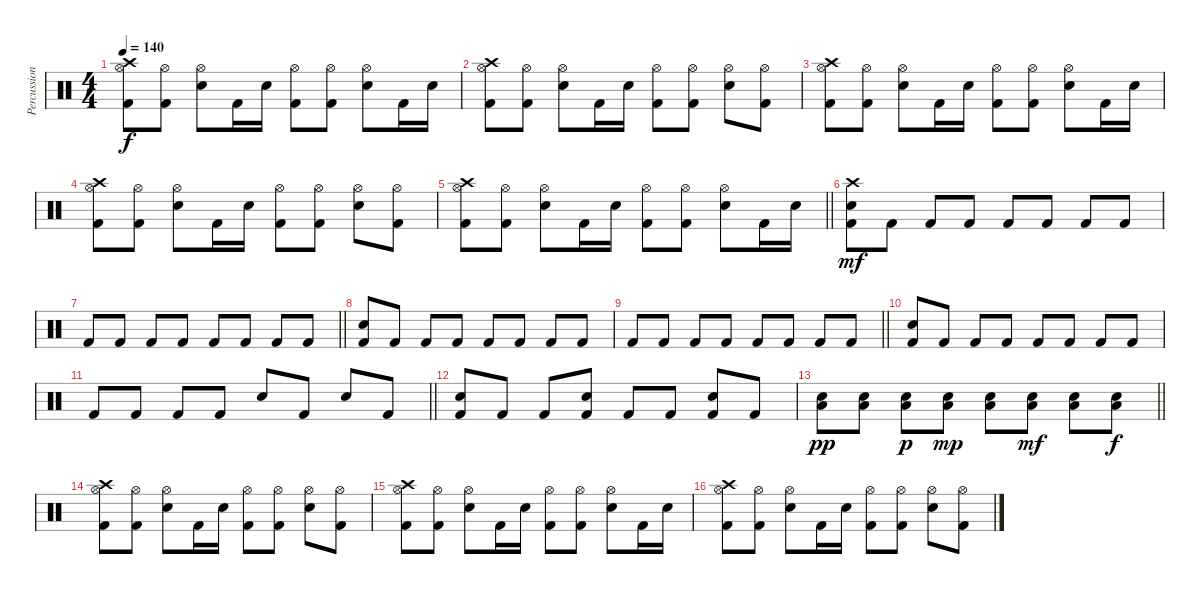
\track ("Percussion" "Percussion") {instrument percussion}
\staff {score}
\articulation defaults
\ts (4 4)
\tempo 140
\clef neutral
\ks c
("Hi-Hat (open)" "Crash high (hit)" "Kick (hit) 2").8{dy f} ("Hi-Hat (open)" "Kick (hit) 2").8 ("Hi-Hat (open)" "Snare (hit) 2").8 "Kick (hit) 2".16 "Snare (hit) 2".16 ("Hi-Hat (open)" "Kick (hit) 2").8 ("Hi-Hat (open)" "Kick (hit) 2").8 ("Hi-Hat (open)" "Snare (hit) 2").8 "Kick (hit) 2".16 "Snare (hit) 2".16 |
("Hi-Hat (open)" "Crash high (hit)" "Kick (hit) 2").8 ("Hi-Hat (open)" "Kick (hit) 2").8 ("Hi-Hat (open)" "Snare (hit) 2").8 "Kick (hit) 2".16 "Snare (hit) 2".16 ("Hi-Hat (open)" "Kick (hit) 2").8 ("Hi-Hat (open)" "Kick (hit) 2").8 ("Hi-Hat (open)" "Snare (hit) 2").8 ("Hi-Hat (open)" "Kick (hit) 2").8 |
("Hi-Hat (open)" "Crash high (hit)" "Kick (hit) 2").8 ("Hi-Hat (open)" "Kick (hit) 2").8 ("Hi-Hat (open)" "Snare (hit) 2").8 "Kick (hit) 2".16 "Snare (hit) 2".16 ("Hi-Hat (open)" "Kick (hit) 2").8 ("Hi-Hat (open)" "Kick (hit) 2").8 ("Hi-Hat (open)" "Snare (hit) 2").8 "Kick (hit) 2".16 "Snare (hit) 2".16 |
("Hi-Hat (open)" "Crash high (hit)" "Kick (hit) 2").8 ("Hi-Hat (open)" "Kick (hit) 2").8 ("Hi-Hat (open)" "Snare (hit) 2").8 "Kick (hit) 2".16 "Snare (hit) 2".16 ("Hi-Hat (open)" "Kick (hit) 2").8 ("Hi-Hat (open)" "Kick (hit) 2").8 ("Hi-Hat (open)" "Snare (hit) 2").8 ("Hi-Hat (open)" "Kick (hit) 2").8 |
\barLineRight lightlight
("Hi-Hat (open)" "Crash high (hit)" "Kick (hit) 2").8 ("Hi-Hat (open)" "Kick (hit) 2").8 ("Hi-Hat (open)" "Snare (hit) 2").8 "Kick (hit) 2".16 "Snare (hit) 2".16 ("Hi-Hat (open)" "Kick (hit) 2").8 ("Hi-Hat (open)" "Kick (hit) 2").8 ("Hi-Hat (open)" "Snare (hit) 2").8 "Kick (hit) 2".16 "Snare (hit) 2".16 |
\section ("" "")
("Crash high (hit)" "Snare (hit) 2" "Kick (hit) 2").8{dy mf} "Kick (hit) 2".8 "Kick (hit) 2".8 "Kick (hit) 2".8 "Kick (hit) 2".8 "Kick (hit) 2".8 "Kick (hit) 2".8 "Kick (hit) 2".8 |
\barLineRight lightlight "Kick (hit) 2".8 "Kick (hit) 2".8 "Kick (hit) 2".8 "Kick (hit) 2".8 "Kick (hit) 2".8 "Kick (hit) 2".8 "Kick (hit) 2".8 "Kick (hit) 2".8
|
("Snare (hit) 2" "Kick (hit) 2").8 "Kick (hit) 2".8 "Kick (hit) 2".8 "Kick (hit) 2".8 "Kick (hit) 2".8 "Kick (hit) 2".8 "Kick (hit) 2".8 "Kick (hit) 2".8 |
\barLineRight lightlight "Kick (hit) 2".8 "Kick (hit) 2".8 "Kick (hit) 2".8 "Kick (hit) 2".8 "Kick (hit) 2".8 "Kick (hit) 2".8 "Kick (hit) 2".8 "Kick (hit) 2".8
|
("Snare (hit) 2" "Kick (hit) 2").8 "Kick (hit) 2".8 "Kick (hit) 2".8 "Kick (hit) 2".8 "Kick (hit) 2".8 "Kick (hit) 2".8 "Kick (hit) 2".8 "Kick (hit) 2".8 |
\barLineRight lightlight "Kick (hit) 2".8 "Kick (hit) 2".8 "Kick (hit) 2".8 "Kick (hit) 2".8 "Snare (hit) 2".8 "Kick (hit) 2".8 "Snare (hit) 2".8 "Kick (hit) 2".8
|
("Snare (hit) 2" "Kick (hit) 2").8 "Kick (hit) 2".8 "Kick (hit) 2".8 ("Snare (hit) 2" "Kick (hit) 2").8 "Kick (hit) 2".8 "Kick (hit) 2".8 ("Snare (hit) 2" "Kick (hit) 2").8 "Kick (hit) 2".8 |
\barLineRight lightlight
("Snare (hit) 2" "Low Floor Tom (hit)").8{dy pp} ("Snare (hit) 2" "Low Floor Tom (hit)").8 ("Snare (hit) 2" "Low Floor Tom (hit)").8{dy p} ("Snare (hit) 2" "Low Floor Tom (hit)").8{dy mp} ("Snare (hit) 2" "Low Floor Tom (hit)").8 ("Snare (hit) 2" "Low Floor Tom (hit)").8{dy mf} ("Snare (hit) 2" "Low Floor Tom (hit)").8 ("Snare (hit) 2" "Low Floor Tom (hit)").8{dy f} |
\section ("" "")
("Hi-Hat (open)" "Crash high (hit)" "Kick (hit) 2").8 ("Hi-Hat (open)" "Kick (hit) 2").8 ("Hi-Hat (open)" "Snare (hit) 2").8 "Kick (hit) 2".16 "Snare (hit) 2".16 ("Hi-Hat (open)" "Kick (hit) 2").8 ("Hi-Hat (open)" "Kick (hit) 2").8 ("Hi-Hat (open)" "Snare (hit) 2").8 ("Hi-Hat (open)" "Kick (hit) 2").8 |
("Hi-Hat (open)" "Crash high (hit)" "Kick (hit) 2").8 ("Hi-Hat (open)" "Kick (hit) 2").8 ("Hi-Hat (open)" "Snare (hit) 2").8 "Kick (hit) 2".16 "Snare (hit) 2".16 ("Hi-Hat (open)" "Kick (hit) 2").8 ("Hi-Hat (open)" "Kick (hit) 2").8 ("Hi-Hat (open)" "Snare (hit) 2").8 "Kick (hit) 2".16 "Snare (hit) 2".16 |
("Hi-Hat (open)" "Crash high (hit)" "Kick (hit) 2").8 ("Hi-Hat (open)" "Kick (hit) 2").8 ("Hi-Hat (open)" "Snare (hit) 2").8 "Kick (hit) 2".16 "Snare (hit) 2".16 ("Hi-Hat (open)" "Kick (hit) 2").8 ("Hi-Hat (open)" "Kick (hit) 2").8 ("Hi-Hat (open)" "Snare (hit) 2").8 ("Hi-Hat (open)" "Kick (hit) 2").8
